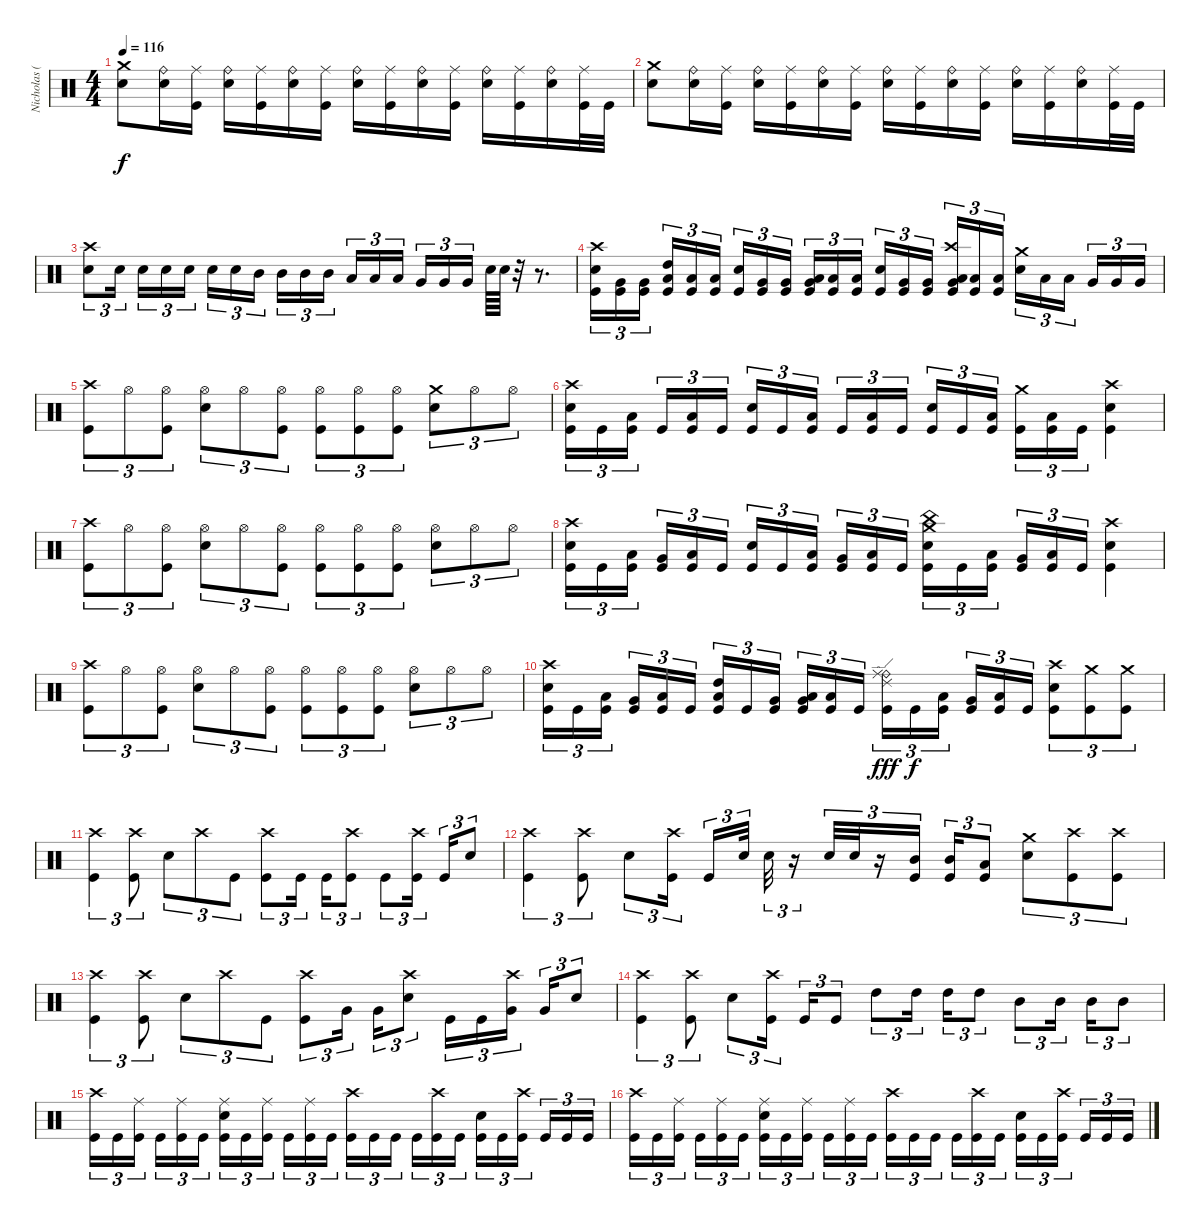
\track ("Nicholas (Drums)" "Nicholas (") {instrument percussion}
\staff {score}
\articulation defaults
\ts (4 4)
\tempo 116
\clef neutral
\ks c
("Crash medium (hit)" "Electric Snare (hit)").8{dy f} ("Ride (bell)" "Electric Snare (hit)").16 ("Ride (middle)" "Kick (hit)").16 ("Ride (bell)" "Electric Snare (hit)").16 ("Ride (middle)" "Kick (hit)").16 ("Ride (bell)" "Electric Snare (hit)").16 ("Ride (middle)" "Kick (hit)").16 ("Ride (bell)" "Electric Snare (hit)").16 ("Ride (middle)" "Kick (hit)").16 ("Ride (bell)" "Electric Snare (hit)").16 ("Ride (middle)" "Kick (hit)").16 ("Ride (bell)" "Electric Snare (hit)").16 ("Ride (middle)" "Kick (hit)").16 ("Ride (bell)" "Electric Snare (hit)").16 ("Ride (middle)" "Kick (hit)").32 "Kick (hit)".32 |
("Crash medium (hit)" "Electric Snare (hit)").8 ("Ride (bell)" "Electric Snare (hit)").16 ("Ride (middle)" "Kick (hit)").16 ("Ride (bell)" "Electric Snare (hit)").16 ("Ride (middle)" "Kick (hit)").16 ("Ride (bell)" "Electric Snare (hit)").16 ("Ride (middle)" "Kick (hit)").16 ("Ride (bell)" "Electric Snare (hit)").16 ("Ride (middle)" "Kick (hit)").16 ("Ride (bell)" "Electric Snare (hit)").16 ("Ride (middle)" "Kick (hit)").16 ("Ride (bell)" "Electric Snare (hit)").16 ("Ride (middle)" "Kick (hit)").16 ("Ride (bell)" "Electric Snare (hit)").16 ("Ride (middle)" "Kick (hit)").32 "Kick (hit)".32 |
("Crash high (hit)" "Electric Snare (hit)").8{tu (3 2)} "Electric Snare (hit)".16{tu (3 2)} "Electric Snare (hit)".16{tu (3 2)} "Electric Snare (hit)".16{tu (3 2)} "Electric Snare (hit)".16{tu (3 2)} "Electric Snare (hit)".16{tu (3 2)} "Electric Snare (hit)".16{tu (3 2)} "Mid Tom (hit)".16{tu (3 2)} "Mid Tom (hit)".16{tu (3 2)} "Mid Tom (hit)".16{tu (3 2)} "Mid Tom (hit)".16{tu (3 2)} "Low Tom (hit)".16{tu (3 2)} "Low Tom (hit)".16{tu (3 2)} "Low Tom (hit)".16{tu (3 2)} "Very Low Tom (hit)".16{tu (3 2)} "Very Low Tom (hit)".16{tu (3 2)} "Very Low Tom (hit)".16{tu (3 2)} "Electric Snare (hit)".64 "Electric Snare (hit)".64 r.32 r.8{d} |
("Crash high (hit)" "Electric Snare (hit)" "Kick (hit)").16{tu (3 2)} ("Very Low Tom (hit)" "Kick (hit)").16{tu (3 2)} ("Very Low Tom (hit)" "Kick (hit)").16{tu (3 2)} ("High Tom (hit)" "Low Tom (hit)" "Kick (hit)").16{tu (3 2)} ("Low Floor Tom (hit)" "Kick (hit)").16{tu (3 2)} ("Low Floor Tom (hit)" "Kick (hit)").16{tu (3 2)} ("Electric Snare (hit)" "Kick (hit)").16{tu (3 2)} ("Very Low Tom (hit)" "Kick (hit)").16{tu (3 2)} ("Very Low Tom (hit)" "Kick (hit)").16{tu (3 2)} ("Low Tom (hit)" "Very Low Tom (hit)" "Kick (hit)").16{tu (3 2)} ("Low Floor Tom (hit)" "Kick (hit)").16{tu (3 2)} ("Low Floor Tom (hit)" "Kick (hit)").16{tu (3 2)} ("Electric Snare (hit)" "Kick (hit)").16{tu (3 2)} ("Very Low Tom (hit)" "Kick (hit)").16{tu (3 2)} ("Very Low Tom (hit)" "Kick (hit)").16{tu (3 2)} ("Crash high (hit)" "Low Tom (hit)" "Very Low Tom (hit)" "Kick (hit)").16{tu (3 2)} ("Low Floor Tom (hit)" "Kick (hit)").16{tu (3 2)} ("Low Floor Tom (hit)" "Kick (hit)").16{tu (3 2)} ("Crash medium (hit)" "Electric Snare (hit)").16{tu (3 2)} "Low Tom (hit)".16{tu (3 2)} "Low Tom (hit)".16{tu (3 2)} "Very Low Tom (hit)".16{tu (3 2)} "Very Low Tom (hit)".16{tu (3 2)} "Very Low Tom (hit)".16{tu (3 2)} |
("Crash high (hit)" "Kick (hit)").8{tu (3 2)} "Hi-Hat (open)".8{tu (3 2)} ("Hi-Hat (open)" "Kick (hit)").8{tu (3 2)} ("Hi-Hat (open)" "Electric Snare (hit)").8{tu (3 2)} "Hi-Hat (open)".8{tu (3 2)} ("Hi-Hat (open)" "Kick (hit)").8{tu (3 2)} ("Hi-Hat (open)" "Kick (hit)").8{tu (3 2)} ("Hi-Hat (open)" "Kick (hit)").8{tu (3 2)} ("Hi-Hat (open)" "Kick (hit)").8{tu (3 2)} ("Crash medium (hit)" "Electric Snare (hit)").8{tu (3 2)} "Hi-Hat (open)".8{tu (3 2)} "Hi-Hat (open)".8{tu (3 2)} |
("Crash high (hit)" "Electric Snare (hit)" "Kick (hit)").16{tu (3 2)} "Kick (hit)".16{tu (3 2)} ("Low Tom (hit)" "Kick (hit)").16{tu (3 2)} "Kick (hit)".16{tu (3 2)} ("Low Tom (hit)" "Kick (hit)").16{tu (3 2)} "Kick (hit)".16{tu (3 2)} ("Electric Snare (hit)" "Kick (hit)").16{tu (3 2)} "Kick (hit)".16{tu (3 2)} ("Low Tom (hit)" "Kick (hit)").16{tu (3 2)} "Kick (hit)".16{tu (3 2)} ("Low Tom (hit)" "Kick (hit)").16{tu (3 2)} "Kick (hit)".16{tu (3 2)} ("Electric Snare (hit)" "Kick (hit)").16{tu (3 2)} "Kick (hit)".16{tu (3 2)} ("Low Tom (hit)" "Kick (hit)").16{tu (3 2)} ("Crash medium (hit)" "Kick (hit)").16{tu (3 2)} ("Low Tom (hit)" "Kick (hit)").16{tu (3 2)} "Kick (hit)".16{tu (3 2)} ("Crash high (hit)" "Electric Snare (hit)" "Kick (hit)").4 |
("Crash high (hit)" "Kick (hit)").8{tu (3 2)} "Hi-Hat (open)".8{tu (3 2)} ("Hi-Hat (open)" "Kick (hit)").8{tu (3 2)} ("Hi-Hat (open)" "Electric Snare (hit)").8{tu (3 2)} "Hi-Hat (open)".8{tu (3 2)} ("Hi-Hat (open)" "Kick (hit)").8{tu (3 2)} ("Hi-Hat (open)" "Kick (hit)").8{tu (3 2)} ("Hi-Hat (open)" "Kick (hit)").8{tu (3 2)} ("Hi-Hat (open)" "Kick (hit)").8{tu (3 2)} ("Hi-Hat (open)" "Electric Snare (hit)").8{tu (3 2)} "Hi-Hat (open)".8{tu (3 2)} "Hi-Hat (open)".8{tu (3 2)} |
("Crash high (hit)" "Electric Snare (hit)" "Kick (hit)").16{tu (3 2)} "Kick (hit)".16{tu (3 2)} ("Low Tom (hit)" "Kick (hit)").16{tu (3 2)} ("Very Low Tom (hit)" "Kick (hit)").16{tu (3 2)} ("Low Tom (hit)" "Kick (hit)").16{tu (3 2)} "Kick (hit)".16{tu (3 2)} ("Electric Snare (hit)" "Kick (hit)").16{tu (3 2)} "Kick (hit)".16{tu (3 2)} ("Low Tom (hit)" "Kick (hit)").16{tu (3 2)} ("Very Low Tom (hit)" "Kick (hit)").16{tu (3 2)} ("Low Tom (hit)" "Kick (hit)").16{tu (3 2)} "Kick (hit)".16{tu (3 2)} ("Crash medium (hit)" "China (hit)" "Electric Snare (hit)" "Kick (hit)").16{tu (3 2)} "Kick (hit)".16{tu (3 2)} ("Low Tom (hit)" "Kick (hit)").16{tu (3 2)} ("Very Low Tom (hit)" "Kick (hit)").16{tu (3 2)} ("Low Tom (hit)" "Kick (hit)").16{tu (3 2)} "Kick (hit)".16{tu (3 2)} ("Crash high (hit)" "Electric Snare (hit)" "Kick (hit)").4 |
("Crash high (hit)" "Kick (hit)").8{tu (3 2)} "Hi-Hat (open)".8{tu (3 2)} ("Hi-Hat (open)" "Kick (hit)").8{tu (3 2)} ("Hi-Hat (open)" "Electric Snare (hit)").8{tu (3 2)} "Hi-Hat (open)".8{tu (3 2)} ("Hi-Hat (open)" "Kick (hit)").8{tu (3 2)} ("Hi-Hat (open)" "Kick (hit)").8{tu (3 2)} ("Hi-Hat (open)" "Kick (hit)").8{tu (3 2)} ("Hi-Hat (open)" "Kick (hit)").8{tu (3 2)} ("Hi-Hat (open)" "Electric Snare (hit)").8{tu (3 2)} "Hi-Hat (open)".8{tu (3 2)} "Hi-Hat (open)".8{tu (3 2)} |
("Crash high (hit)" "Electric Snare (hit)" "Kick (hit)").16{tu (3 2)} "Kick (hit)".16{tu (3 2)} ("Low Tom (hit)" "Kick (hit)").16{tu (3 2)} ("Very Low Tom (hit)" "Kick (hit)").16{tu (3 2)} ("Low Tom (hit)" "Kick (hit)").16{tu (3 2)} "Kick (hit)".16{tu (3 2)} ("High Tom (hit)" "Low Tom (hit)" "Kick (hit)").16{tu (3 2)} "Kick (hit)".16{tu (3 2)} ("Very Low Tom (hit)" "Kick (hit)").16{tu (3 2)} ("Very Low Tom (hit)" "Low Tom (hit)" "Kick (hit)").16{tu (3 2)} ("Low Tom (hit)" "Kick (hit)").16{tu (3 2)} "Kick (hit)".16{tu (3 2)} ("Ride (bell)" "Ride (middle)" "Ride (edge) 2" "Kick (hit)").16{tu (3 2) dy fff} "Kick (hit)".16{tu (3 2) dy f} ("Low Tom (hit)" "Kick (hit)").16{tu (3 2)} ("Very Low Tom (hit)" "Kick (hit)").16{tu (3 2)} ("Low Tom (hit)" "Kick (hit)").16{tu (3 2)} "Kick (hit)".16{tu (3 2)} ("Crash high (hit)" "Electric Snare (hit)" "Kick (hit)").8{tu (3 2)} ("Crash medium (hit)" "Kick (hit)").8{tu (3 2)} ("Crash medium (hit)" "Kick (hit)").8{tu (3 2)} |
("Crash high (hit)" "Kick (hit)").4{tu (3 2)} ("Crash high (hit)" "Kick (hit)").8{tu (3 2)} "Electric Snare (hit)".8{tu (3 2)} "Crash high (hit)".8{tu (3 2)} "Kick (hit)".8{tu (3 2)} ("Crash high (hit)" "Kick (hit)").8{tu (3 2)} "Kick (hit)".16{tu (3 2)} "Kick (hit)".16{tu (3 2)} ("Crash high (hit)" "Kick (hit)").8{tu (3 2)} "Kick (hit)".8{tu (3 2)} ("Crash high (hit)" "Kick (hit)").16{tu (3 2)} "Kick (hit)".16{tu (3 2)} "Electric Snare (hit)".8{tu (3 2)} |
("Crash high (hit)" "Kick (hit)").4{tu (3 2)} ("Crash high (hit)" "Kick (hit)").8{tu (3 2)} "Electric Snare (hit)".8{tu (3 2)} ("Crash high (hit)" "Kick (hit)").16{tu (3 2)} "Kick (hit)".16{tu (3 2)} "Electric Snare (hit)".32{tu (3 2)} "Electric Snare (hit)".32{tu (3 2)} r.16{tu (3 2)} "Electric Snare (hit)".32{tu (3 2)} "Electric Snare (hit)".32{tu (3 2)} r.16{tu (3 2)} ("Mid Tom (hit)" "Kick (hit)").16{tu (3 2)} ("Mid Tom (hit)" "Kick (hit)").16{tu (3 2)} ("Low Tom (hit)" "Kick (hit)").8{tu (3 2)} ("Crash medium (hit)" "Electric Snare (hit)").8{tu (3 2)} ("Crash high (hit)" "Kick (hit)").8{tu (3 2)} ("Crash high (hit)" "Kick (hit)").8{tu (3 2)} |
("Crash high (hit)" "Kick (hit)").4{tu (3 2)} ("Crash high (hit)" "Kick (hit)").8{tu (3 2)} "Electric Snare (hit)".8{tu (3 2)} "Crash high (hit)".8{tu (3 2)} "Kick (hit)".8{tu (3 2)} ("Crash high (hit)" "Kick (hit)").8{tu (3 2)} "Very Low Tom (hit)".16{tu (3 2)} "Very Low Tom (hit)".16{tu (3 2)} ("Crash high (hit)" "Electric Snare (hit)").8{tu (3 2)} "Kick (hit)".16{tu (3 2)} "Kick (hit)".16{tu (3 2)} ("Crash high (hit)" "Very Low Tom (hit)").16{tu (3 2)} "Very Low Tom (hit)".16{tu (3 2)} "Electric Snare (hit)".8{tu (3 2)} |
("Crash high (hit)" "Kick (hit)").4{tu (3 2)} ("Crash high (hit)" "Kick (hit)").8{tu (3 2)} "Electric Snare (hit)".8{tu (3 2)} ("Crash high (hit)" "Kick (hit)").16{tu (3 2)} "Kick (hit)".16{tu (3 2)} "Kick (hit)".8{tu (3 2)} "High Tom (hit)".8{tu (3 2)} "High Tom (hit)".16{tu (3 2)} "High Tom (hit)".16{tu (3 2)} "High Tom (hit)".8{tu (3 2)} "Mid Tom (hit)".8{tu (3 2)} "Mid Tom (hit)".16{tu (3 2)} "Mid Tom (hit)".16{tu (3 2)} "Mid Tom (hit)".8{tu (3 2)} |
("Crash high (hit)" "Kick (hit)").16{tu (3 2)} "Kick (hit)".16{tu (3 2)} ("Ride (middle)" "Kick (hit)").16{tu (3 2)} "Kick (hit)".16{tu (3 2)} ("Ride (middle)" "Kick (hit)").16{tu (3 2)} "Kick (hit)".16{tu (3 2)} ("Ride (middle)" "Electric Snare (hit)" "Kick (hit)").16{tu (3 2)} "Kick (hit)".16{tu (3 2)} ("Ride (middle)" "Kick (hit)").16{tu (3 2)} "Kick (hit)".16{tu (3 2)} ("Ride (middle)" "Kick (hit)").16{tu (3 2)} "Kick (hit)".16{tu (3 2)} ("Crash high (hit)" "Kick (hit)").16{tu (3 2)} "Kick (hit)".16{tu (3 2)} "Kick (hit)".16{tu (3 2)} "Kick (hit)".16{tu (3 2)} ("Crash high (hit)" "Kick (hit)").16{tu (3 2)} "Kick (hit)".16{tu (3 2)} ("Electric Snare (hit)" "Kick (hit)").16{tu (3 2)} "Kick (hit)".16{tu (3 2)} ("Crash high (hit)" "Kick (hit)").16{tu (3 2)} "Kick (hit)".16{tu (3 2)} "Kick (hit)".16{tu (3 2)} "Kick (hit)".16{tu (3 2)} |
("Crash high (hit)" "Kick (hit)").16{tu (3 2)} "Kick (hit)".16{tu (3 2)} ("Ride (middle)" "Kick (hit)").16{tu (3 2)} "Kick (hit)".16{tu (3 2)} ("Ride (middle)" "Kick (hit)").16{tu (3 2)} "Kick (hit)".16{tu (3 2)} ("Ride (middle)" "Electric Snare (hit)" "Kick (hit)").16{tu (3 2)} "Kick (hit)".16{tu (3 2)} ("Ride (middle)" "Kick (hit)").16{tu (3 2)} "Kick (hit)".16{tu (3 2)} ("Ride (middle)" "Kick (hit)").16{tu (3 2)} "Kick (hit)".16{tu (3 2)} ("Crash high (hit)" "Kick (hit)").16{tu (3 2)} "Kick (hit)".16{tu (3 2)} "Kick (hit)".16{tu (3 2)} "Kick (hit)".16{tu (3 2)} ("Crash high (hit)" "Kick (hit)").16{tu (3 2)} "Kick (hit)".16{tu (3 2)} ("Electric Snare (hit)" "Kick (hit)").16{tu (3 2)} "Kick (hit)".16{tu (3 2)} ("Crash high (hit)" "Kick (hit)").16{tu (3 2)} "Kick (hit)".16{tu (3 2)} "Kick (hit)".16{tu (3 2)} "Kick (hit)".16{tu (3 2)}
